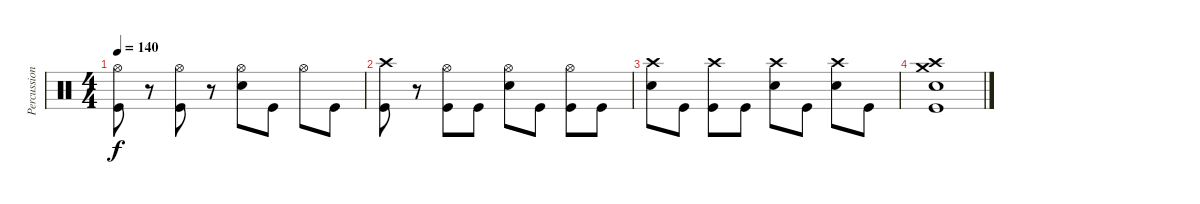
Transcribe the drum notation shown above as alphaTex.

\track ("Percussion" "Percussion") {instrument percussion}
\staff {score}
\articulation defaults
\ts (4 4)
\tempo 140
\clef neutral
\ks c
("Hi-Hat (open)" "Kick (hit)").8{dy f} r.8 ("Hi-Hat (open)" "Kick (hit)").8 r.8 ("Hi-Hat (open)" "Snare (hit) 2").8 "Kick (hit)".8 "Hi-Hat (open)".8 "Kick (hit)".8 |
("Crash high (hit)" "Kick (hit)").8 r.8 ("Hi-Hat (open)" "Kick (hit)").8 "Kick (hit)".8 ("Hi-Hat (open)" "Snare (hit) 2").8 "Kick (hit)".8 ("Hi-Hat (open)" "Kick (hit)").8 "Kick (hit)".8 |
("Crash high (hit)" "Snare (hit) 2").8 "Kick (hit)".8 ("Crash high (hit)" "Kick (hit)").8 "Kick (hit)".8 ("Crash high (hit)" "Snare (hit) 2").8 "Kick (hit)".8 ("Crash high (hit)" "Snare (hit) 2").8 "Kick (hit)".8 |
("Crash high (hit)" "Crash medium (hit)" "Snare (hit) 2" "Kick (hit)").1
